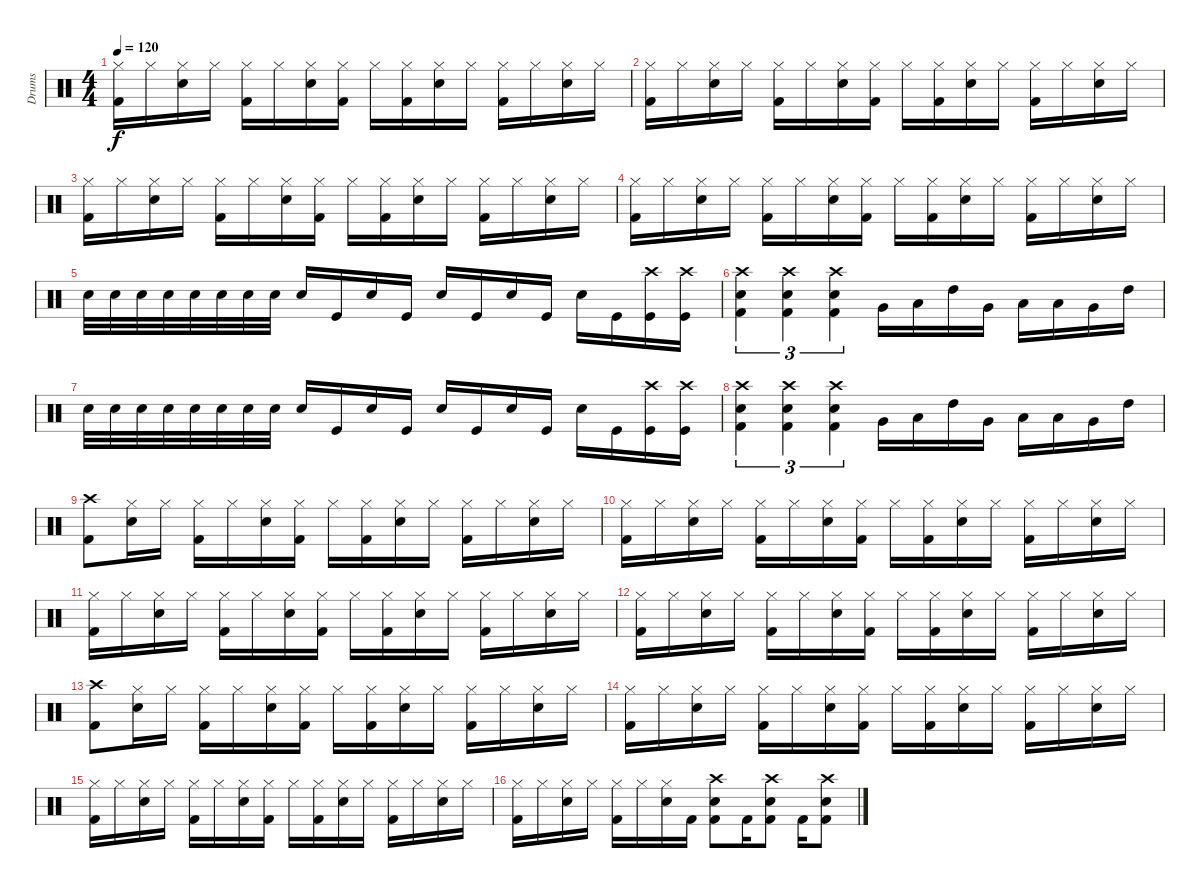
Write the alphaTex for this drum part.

\track ("Drums" "Drums") {instrument percussion}
\staff {score}
\articulation defaults
\ts (4 4)
\tempo 120
\clef neutral
\ks c
("Hi-Hat (closed)" "Kick (hit) 2").16{dy f} "Hi-Hat (closed)".16 ("Hi-Hat (closed)" "Electric Snare (hit)").16 "Hi-Hat (closed)".16 ("Hi-Hat (closed)" "Kick (hit) 2").16 "Hi-Hat (closed)".16 ("Hi-Hat (closed)" "Electric Snare (hit)").16 ("Hi-Hat (closed)" "Kick (hit) 2").16 "Hi-Hat (closed)".16 ("Hi-Hat (closed)" "Kick (hit) 2").16 ("Hi-Hat (closed)" "Electric Snare (hit)").16 "Hi-Hat (closed)".16 ("Hi-Hat (closed)" "Kick (hit) 2").16 "Hi-Hat (closed)".16 ("Hi-Hat (closed)" "Electric Snare (hit)").16 "Hi-Hat (closed)".16 |
("Hi-Hat (closed)" "Kick (hit) 2").16 "Hi-Hat (closed)".16 ("Hi-Hat (closed)" "Electric Snare (hit)").16 "Hi-Hat (closed)".16 ("Hi-Hat (closed)" "Kick (hit) 2").16 "Hi-Hat (closed)".16 ("Hi-Hat (closed)" "Electric Snare (hit)").16 ("Hi-Hat (closed)" "Kick (hit) 2").16 "Hi-Hat (closed)".16 ("Hi-Hat (closed)" "Kick (hit) 2").16 ("Hi-Hat (closed)" "Electric Snare (hit)").16 "Hi-Hat (closed)".16 ("Hi-Hat (closed)" "Kick (hit) 2").16 "Hi-Hat (closed)".16 ("Hi-Hat (closed)" "Electric Snare (hit)").16 "Hi-Hat (closed)".16 |
("Hi-Hat (closed)" "Kick (hit) 2").16 "Hi-Hat (closed)".16 ("Hi-Hat (closed)" "Electric Snare (hit)").16 "Hi-Hat (closed)".16 ("Hi-Hat (closed)" "Kick (hit) 2").16 "Hi-Hat (closed)".16 ("Hi-Hat (closed)" "Electric Snare (hit)").16 ("Hi-Hat (closed)" "Kick (hit) 2").16 "Hi-Hat (closed)".16 ("Hi-Hat (closed)" "Kick (hit) 2").16 ("Hi-Hat (closed)" "Electric Snare (hit)").16 "Hi-Hat (closed)".16 ("Hi-Hat (closed)" "Kick (hit) 2").16 "Hi-Hat (closed)".16 ("Hi-Hat (closed)" "Electric Snare (hit)").16 "Hi-Hat (closed)".16 |
("Hi-Hat (closed)" "Kick (hit) 2").16 "Hi-Hat (closed)".16 ("Hi-Hat (closed)" "Electric Snare (hit)").16 "Hi-Hat (closed)".16 ("Hi-Hat (closed)" "Kick (hit) 2").16 "Hi-Hat (closed)".16 ("Hi-Hat (closed)" "Electric Snare (hit)").16 ("Hi-Hat (closed)" "Kick (hit) 2").16 "Hi-Hat (closed)".16 ("Hi-Hat (closed)" "Kick (hit) 2").16 ("Hi-Hat (closed)" "Electric Snare (hit)").16 "Hi-Hat (closed)".16 ("Hi-Hat (closed)" "Kick (hit) 2").16 "Hi-Hat (closed)".16 ("Hi-Hat (closed)" "Electric Snare (hit)").16 "Hi-Hat (closed)".16 |
"Snare (hit) 2".32 "Snare (hit) 2".32 "Snare (hit) 2".32 "Snare (hit) 2".32 "Snare (hit) 2".32 "Snare (hit) 2".32 "Snare (hit) 2".32 "Snare (hit) 2".32 "Snare (hit) 2".16 "Kick (hit)".16 "Snare (hit) 2".16 "Kick (hit)".16 "Snare (hit) 2".16 "Kick (hit)".16 "Snare (hit) 2".16 "Kick (hit)".16 "Snare (hit) 2".16 "Kick (hit)".16 ("Crash high (hit)" "Kick (hit)").16 ("Crash high (hit)" "Kick (hit)").16 |
("Crash high (hit)" "Electric Snare (hit)" "Kick (hit) 2").4{tu (3 2)} ("Crash high (hit)" "Electric Snare (hit)" "Kick (hit) 2").4{tu (3 2)} ("Crash high (hit)" "Electric Snare (hit)" "Kick (hit) 2").4{tu (3 2)} "Very Low Tom (hit)".16 "Low Tom (hit)".16 "High Tom (hit)".16 "Very Low Tom (hit)".16 "Low Tom (hit)".16 "Low Floor Tom (hit)".16 "Very Low Tom (hit)".16 "High Tom (hit)".16 |
"Snare (hit) 2".32 "Snare (hit) 2".32 "Snare (hit) 2".32 "Snare (hit) 2".32 "Snare (hit) 2".32 "Snare (hit) 2".32 "Snare (hit) 2".32 "Snare (hit) 2".32 "Snare (hit) 2".16 "Kick (hit)".16 "Snare (hit) 2".16 "Kick (hit)".16 "Snare (hit) 2".16 "Kick (hit)".16 "Snare (hit) 2".16 "Kick (hit)".16 "Snare (hit) 2".16 "Kick (hit)".16 ("Crash high (hit)" "Kick (hit)").16 ("Crash high (hit)" "Kick (hit)").16 |
("Crash high (hit)" "Electric Snare (hit)" "Kick (hit) 2").4{tu (3 2)} ("Crash high (hit)" "Electric Snare (hit)" "Kick (hit) 2").4{tu (3 2)} ("Crash high (hit)" "Electric Snare (hit)" "Kick (hit) 2").4{tu (3 2)} "Very Low Tom (hit)".16 "Low Tom (hit)".16 "High Tom (hit)".16 "Very Low Tom (hit)".16 "Low Tom (hit)".16 "Low Floor Tom (hit)".16 "Very Low Tom (hit)".16 "High Tom (hit)".16 |
("Crash high (hit)" "Kick (hit) 2").8 ("Hi-Hat (closed)" "Electric Snare (hit)").16 "Hi-Hat (closed)".16 ("Hi-Hat (closed)" "Kick (hit) 2").16 "Hi-Hat (closed)".16 ("Hi-Hat (closed)" "Electric Snare (hit)").16 ("Hi-Hat (closed)" "Kick (hit) 2").16 "Hi-Hat (closed)".16 ("Hi-Hat (closed)" "Kick (hit) 2").16 ("Hi-Hat (closed)" "Electric Snare (hit)").16 "Hi-Hat (closed)".16 ("Hi-Hat (closed)" "Kick (hit) 2").16 "Hi-Hat (closed)".16 ("Hi-Hat (closed)" "Electric Snare (hit)").16 "Hi-Hat (closed)".16 |
("Hi-Hat (closed)" "Kick (hit) 2").16 "Hi-Hat (closed)".16 ("Hi-Hat (closed)" "Electric Snare (hit)").16 "Hi-Hat (closed)".16 ("Hi-Hat (closed)" "Kick (hit) 2").16 "Hi-Hat (closed)".16 ("Hi-Hat (closed)" "Electric Snare (hit)").16 ("Hi-Hat (closed)" "Kick (hit) 2").16 "Hi-Hat (closed)".16 ("Hi-Hat (closed)" "Kick (hit) 2").16 ("Hi-Hat (closed)" "Electric Snare (hit)").16 "Hi-Hat (closed)".16 ("Hi-Hat (closed)" "Kick (hit) 2").16 "Hi-Hat (closed)".16 ("Hi-Hat (closed)" "Electric Snare (hit)").16 "Hi-Hat (closed)".16 |
("Hi-Hat (closed)" "Kick (hit) 2").16 "Hi-Hat (closed)".16 ("Hi-Hat (closed)" "Electric Snare (hit)").16 "Hi-Hat (closed)".16 ("Hi-Hat (closed)" "Kick (hit) 2").16 "Hi-Hat (closed)".16 ("Hi-Hat (closed)" "Electric Snare (hit)").16 ("Hi-Hat (closed)" "Kick (hit) 2").16 "Hi-Hat (closed)".16 ("Hi-Hat (closed)" "Kick (hit) 2").16 ("Hi-Hat (closed)" "Electric Snare (hit)").16 "Hi-Hat (closed)".16 ("Hi-Hat (closed)" "Kick (hit) 2").16 "Hi-Hat (closed)".16 ("Hi-Hat (closed)" "Electric Snare (hit)").16 "Hi-Hat (closed)".16 |
("Hi-Hat (closed)" "Kick (hit) 2").16 "Hi-Hat (closed)".16 ("Hi-Hat (closed)" "Electric Snare (hit)").16 "Hi-Hat (closed)".16 ("Hi-Hat (closed)" "Kick (hit) 2").16 "Hi-Hat (closed)".16 ("Hi-Hat (closed)" "Electric Snare (hit)").16 ("Hi-Hat (closed)" "Kick (hit) 2").16 "Hi-Hat (closed)".16 ("Hi-Hat (closed)" "Kick (hit) 2").16 ("Hi-Hat (closed)" "Electric Snare (hit)").16 "Hi-Hat (closed)".16 ("Hi-Hat (closed)" "Kick (hit) 2").16 "Hi-Hat (closed)".16 ("Hi-Hat (closed)" "Electric Snare (hit)").16 "Hi-Hat (closed)".16 |
("Crash high (hit)" "Kick (hit) 2").8 ("Hi-Hat (closed)" "Electric Snare (hit)").16 "Hi-Hat (closed)".16 ("Hi-Hat (closed)" "Kick (hit) 2").16 "Hi-Hat (closed)".16 ("Hi-Hat (closed)" "Electric Snare (hit)").16 ("Hi-Hat (closed)" "Kick (hit) 2").16 "Hi-Hat (closed)".16 ("Hi-Hat (closed)" "Kick (hit) 2").16 ("Hi-Hat (closed)" "Electric Snare (hit)").16 "Hi-Hat (closed)".16 ("Hi-Hat (closed)" "Kick (hit) 2").16 "Hi-Hat (closed)".16 ("Hi-Hat (closed)" "Electric Snare (hit)").16 "Hi-Hat (closed)".16 |
("Hi-Hat (closed)" "Kick (hit) 2").16 "Hi-Hat (closed)".16 ("Hi-Hat (closed)" "Electric Snare (hit)").16 "Hi-Hat (closed)".16 ("Hi-Hat (closed)" "Kick (hit) 2").16 "Hi-Hat (closed)".16 ("Hi-Hat (closed)" "Electric Snare (hit)").16 ("Hi-Hat (closed)" "Kick (hit) 2").16 "Hi-Hat (closed)".16 ("Hi-Hat (closed)" "Kick (hit) 2").16 ("Hi-Hat (closed)" "Electric Snare (hit)").16 "Hi-Hat (closed)".16 ("Hi-Hat (closed)" "Kick (hit) 2").16 "Hi-Hat (closed)".16 ("Hi-Hat (closed)" "Electric Snare (hit)").16 "Hi-Hat (closed)".16 |
("Hi-Hat (closed)" "Kick (hit) 2").16 "Hi-Hat (closed)".16 ("Hi-Hat (closed)" "Electric Snare (hit)").16 "Hi-Hat (closed)".16 ("Hi-Hat (closed)" "Kick (hit) 2").16 "Hi-Hat (closed)".16 ("Hi-Hat (closed)" "Electric Snare (hit)").16 ("Hi-Hat (closed)" "Kick (hit) 2").16 "Hi-Hat (closed)".16 ("Hi-Hat (closed)" "Kick (hit) 2").16 ("Hi-Hat (closed)" "Electric Snare (hit)").16 "Hi-Hat (closed)".16 ("Hi-Hat (closed)" "Kick (hit) 2").16 "Hi-Hat (closed)".16 ("Hi-Hat (closed)" "Electric Snare (hit)").16 "Hi-Hat (closed)".16 |
("Hi-Hat (closed)" "Kick (hit) 2").16 "Hi-Hat (closed)".16 ("Hi-Hat (closed)" "Electric Snare (hit)").16 "Hi-Hat (closed)".16 ("Hi-Hat (closed)" "Kick (hit) 2").16 "Hi-Hat (closed)".16 ("Hi-Hat (closed)" "Electric Snare (hit)").16 "Kick (hit) 2".16 ("Electric Snare (hit)" "Crash high (hit)" "Kick (hit) 2").8 "Kick (hit) 2".16 ("Electric Snare (hit)" "Crash high (hit)" "Kick (hit) 2").8 "Kick (hit) 2".16 ("Electric Snare (hit)" "Crash high (hit)" "Kick (hit) 2").8
